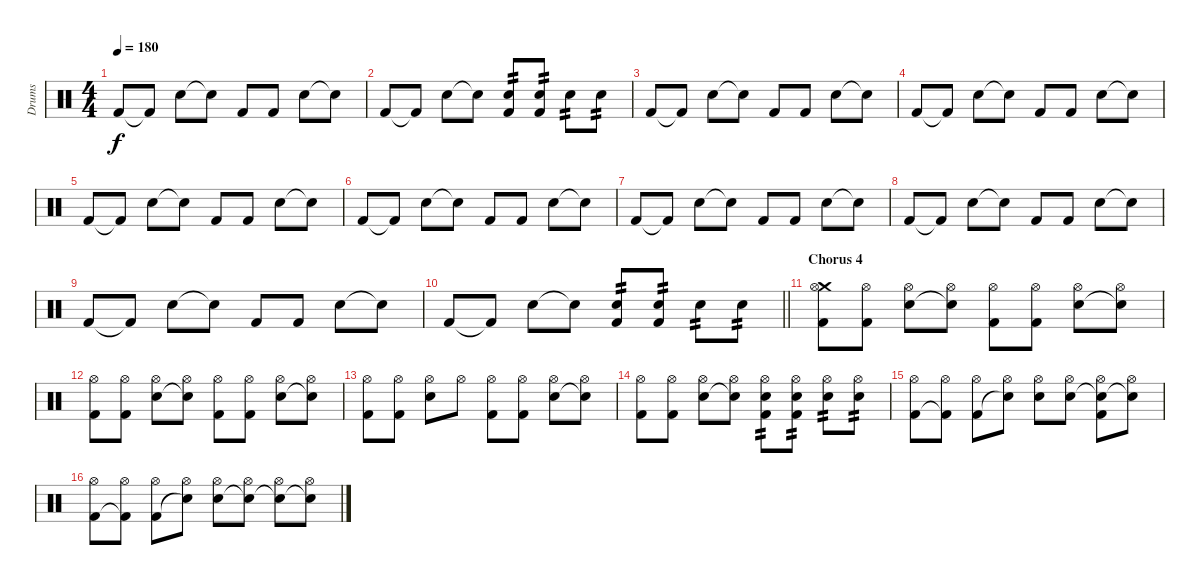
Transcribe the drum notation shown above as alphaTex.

\track ("Drums" "Drums") {instrument percussion}
\staff {score}
\articulation defaults
\ts (4 4)
\tempo 180
\clef neutral
\ks c "Kick (hit) 2".8{dy f} "Kick (hit) 2"{t}.8 "Electric Snare (hit)".8 "Snare (hit)"{t}.8 "Kick (hit) 2".8 "Kick (hit) 2".8 "Electric Snare (hit)".8 "Snare (hit)"{t}.8
|
"Kick (hit) 2".8 "Kick (hit) 2"{t}.8 "Electric Snare (hit)".8 "Snare (hit)"{t}.8 ("Electric Snare (hit)" "Kick (hit) 2").8{tp 2} ("Electric Snare (hit)" "Kick (hit) 2").8{tp 2} "Electric Snare (hit)".8{tp 2} "Electric Snare (hit)".8{tp 2} |
"Kick (hit) 2".8 "Kick (hit) 2"{t}.8 "Electric Snare (hit)".8 "Snare (hit)"{t}.8 "Kick (hit) 2".8 "Kick (hit) 2".8 "Electric Snare (hit)".8 "Snare (hit)"{t}.8 |
"Kick (hit) 2".8 "Kick (hit) 2"{t}.8 "Electric Snare (hit)".8 "Snare (hit)"{t}.8 "Kick (hit) 2".8 "Kick (hit) 2".8 "Electric Snare (hit)".8 "Snare (hit)"{t}.8 |
"Kick (hit) 2".8 "Kick (hit) 2"{t}.8 "Electric Snare (hit)".8 "Snare (hit)"{t}.8 "Kick (hit) 2".8 "Kick (hit) 2".8 "Electric Snare (hit)".8 "Snare (hit)"{t}.8 |
"Kick (hit) 2".8 "Kick (hit) 2"{t}.8 "Electric Snare (hit)".8 "Snare (hit)"{t}.8 "Kick (hit) 2".8 "Kick (hit) 2".8 "Electric Snare (hit)".8 "Snare (hit)"{t}.8 |
"Kick (hit) 2".8 "Kick (hit) 2"{t}.8 "Electric Snare (hit)".8 "Snare (hit)"{t}.8 "Kick (hit) 2".8 "Kick (hit) 2".8 "Electric Snare (hit)".8 "Snare (hit)"{t}.8 |
"Kick (hit) 2".8 "Kick (hit) 2"{t}.8 "Electric Snare (hit)".8 "Snare (hit)"{t}.8 "Kick (hit) 2".8 "Kick (hit) 2".8 "Electric Snare (hit)".8 "Snare (hit)"{t}.8 |
"Kick (hit) 2".8 "Kick (hit) 2"{t}.8 "Electric Snare (hit)".8 "Snare (hit)"{t}.8 "Kick (hit) 2".8 "Kick (hit) 2".8 "Electric Snare (hit)".8 "Snare (hit)"{t}.8 |
\barLineRight lightlight "Kick (hit) 2".8 "Kick (hit) 2"{t}.8 "Electric Snare (hit)".8 "Snare (hit)"{t}.8
("Electric Snare (hit)" "Kick (hit) 2").8{tp 2} ("Electric Snare (hit)" "Kick (hit) 2").8{tp 2} "Electric Snare (hit)".8{tp 2} "Electric Snare (hit)".8{tp 2} |
\section ("" "Chorus 4")
("Crash medium (hit)" "Hi-Hat (open)" "Kick (hit) 2").8 ("Hi-Hat (open)" "Kick (hit) 2").8 ("Hi-Hat (open)" "Electric Snare (hit)").8 ("Hi-Hat (open)" "Snare (hit)"{t}).8 ("Hi-Hat (open)" "Kick (hit) 2").8 ("Hi-Hat (open)" "Kick (hit) 2").8 ("Hi-Hat (open)" "Electric Snare (hit)").8 ("Hi-Hat (open)" "Snare (hit)"{t}).8 |
("Hi-Hat (open)" "Kick (hit) 2").8 ("Hi-Hat (open)" "Kick (hit) 2").8 ("Hi-Hat (open)" "Electric Snare (hit)").8 ("Hi-Hat (open)" "Snare (hit)"{t}).8 ("Hi-Hat (open)" "Kick (hit) 2").8 ("Hi-Hat (open)" "Kick (hit) 2").8 ("Hi-Hat (open)" "Electric Snare (hit)").8 ("Hi-Hat (open)" "Snare (hit)"{t}).8 |
("Hi-Hat (open)" "Kick (hit) 2").8 ("Hi-Hat (open)" "Kick (hit) 2").8 ("Hi-Hat (open)" "Electric Snare (hit)").8 "Hi-Hat (open)".8 ("Hi-Hat (open)" "Kick (hit) 2").8 ("Hi-Hat (open)" "Kick (hit) 2").8 ("Hi-Hat (open)" "Electric Snare (hit)").8 ("Hi-Hat (open)" "Snare (hit)"{t}).8 |
("Hi-Hat (open)" "Kick (hit) 2").8 ("Hi-Hat (open)" "Kick (hit) 2").8 ("Hi-Hat (open)" "Electric Snare (hit)").8 ("Hi-Hat (open)" "Snare (hit)"{t}).8 ("Hi-Hat (open)" "Electric Snare (hit)" "Kick (hit) 2").8{tp 2} ("Hi-Hat (open)" "Electric Snare (hit)" "Kick (hit) 2").8{tp 2} ("Hi-Hat (open)" "Electric Snare (hit)").8{tp 2} ("Hi-Hat (open)" "Electric Snare (hit)").8{tp 2} |
("Hi-Hat (open)" "Kick (hit) 2").8 ("Hi-Hat (open)" "Kick (hit) 2"{t}).8 ("Hi-Hat (open)" "Kick (hit) 2").8 ("Hi-Hat (open)" "Snare (hit)"{t}).8 ("Hi-Hat (open)" "Electric Snare (hit)").8 ("Hi-Hat (open)" "Electric Snare (hit)").8 ("Hi-Hat (open)" "Electric Snare (hit)"{t} "Kick (hit) 2").8 ("Hi-Hat (open)" "Snare (hit)"{t}).8 |
("Hi-Hat (open)" "Kick (hit) 2").8 ("Hi-Hat (open)" "Kick (hit) 2"{t}).8 ("Hi-Hat (open)" "Kick (hit) 2").8 ("Hi-Hat (open)" "Snare (hit)"{t}).8 ("Hi-Hat (open)" "Electric Snare (hit)").8 ("Hi-Hat (open)" "Electric Snare (hit)"{t}).8 ("Hi-Hat (open)" "Electric Snare (hit)"{t}).8 ("Hi-Hat (open)" "Snare (hit)"{t}).8
